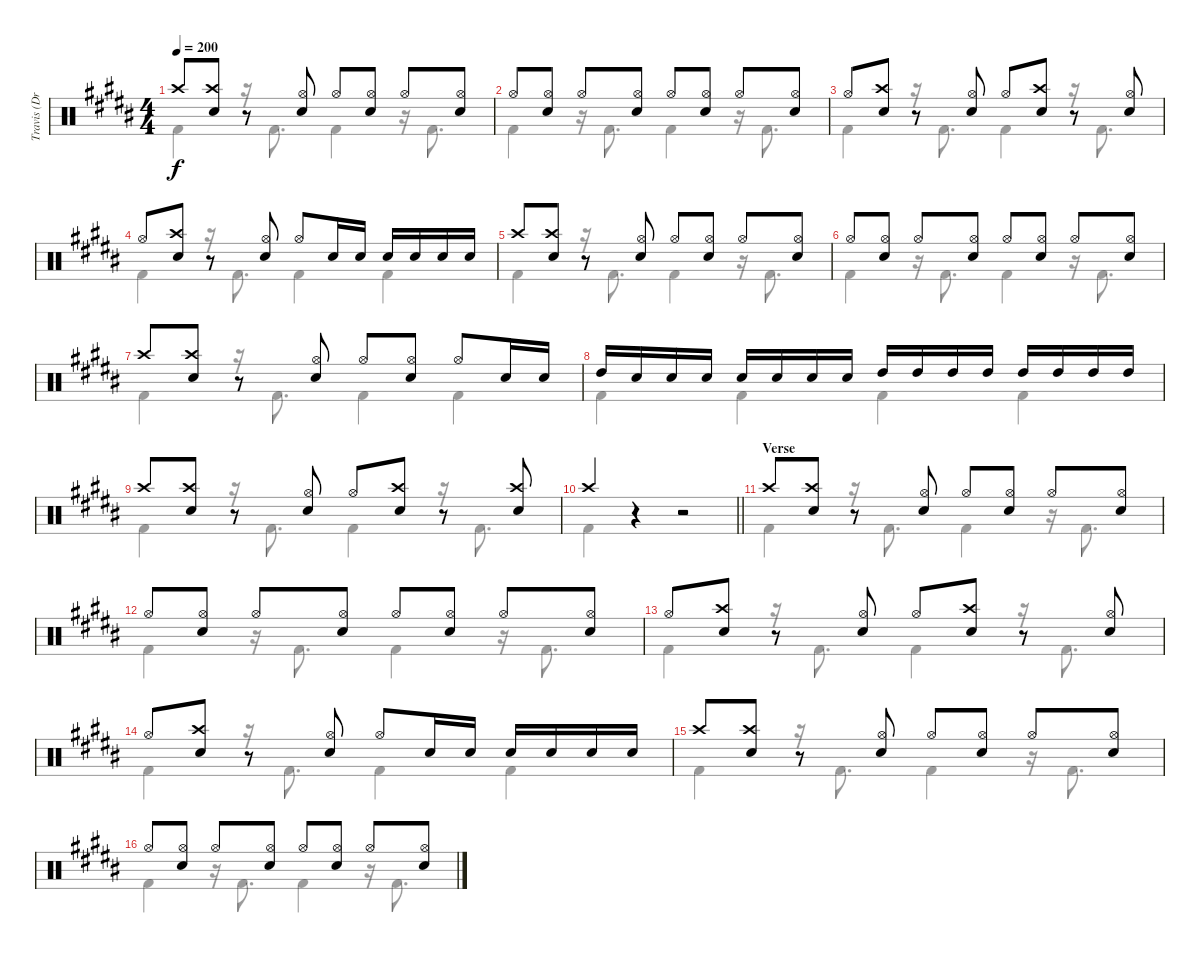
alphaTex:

\track ("Travis (Drums)" "Travis (Dr") {instrument percussion}
\staff {score}
\articulation defaults
\voice
\ts (4 4)
\tempo 200
\clef neutral
\ks b "Crash high (hit)".8{dy f}
("Crash high (hit)" "Electric Snare (hit)").8 r.8 ("Electric Snare (hit)" "Hi-Hat (open)").8 "Hi-Hat (open)".8 ("Electric Snare (hit)" "Hi-Hat (open)").8 "Hi-Hat (open)".8 ("Electric Snare (hit)" "Hi-Hat (open)").8 |
"Hi-Hat (open)".8 ("Electric Snare (hit)" "Hi-Hat (open)").8 "Hi-Hat (open)".8 ("Electric Snare (hit)" "Hi-Hat (open)").8 "Hi-Hat (open)".8 ("Electric Snare (hit)" "Hi-Hat (open)").8 "Hi-Hat (open)".8 ("Electric Snare (hit)" "Hi-Hat (open)").8 |
"Hi-Hat (open)".8 ("Crash high (hit)" "Electric Snare (hit)").8 r.8 ("Electric Snare (hit)" "Hi-Hat (open)").8 "Hi-Hat (open)".8 ("Crash high (hit)" "Electric Snare (hit)").8 r.8 ("Electric Snare (hit)" "Hi-Hat (open)").8 |
"Hi-Hat (open)".8 ("Crash high (hit)" "Electric Snare (hit)").8 r.8 ("Electric Snare (hit)" "Hi-Hat (open)").8 "Hi-Hat (open)".8 "Electric Snare (hit)".16 "Electric Snare (hit)".16 "Electric Snare (hit)".16 "Electric Snare (hit)".16 "Electric Snare (hit)".16 "Electric Snare (hit)".16 |
"Crash high (hit)".8 ("Crash high (hit)" "Electric Snare (hit)").8 r.8 ("Electric Snare (hit)" "Hi-Hat (open)").8 "Hi-Hat (open)".8 ("Electric Snare (hit)" "Hi-Hat (open)").8 "Hi-Hat (open)".8 ("Electric Snare (hit)" "Hi-Hat (open)").8 |
"Hi-Hat (open)".8 ("Electric Snare (hit)" "Hi-Hat (open)").8 "Hi-Hat (open)".8 ("Electric Snare (hit)" "Hi-Hat (open)").8 "Hi-Hat (open)".8 ("Electric Snare (hit)" "Hi-Hat (open)").8 "Hi-Hat (open)".8 ("Electric Snare (hit)" "Hi-Hat (open)").8 |
"Crash high (hit)".8 ("Crash high (hit)" "Electric Snare (hit)").8 r.8 ("Electric Snare (hit)" "Hi-Hat (open)").8 "Hi-Hat (open)".8 ("Electric Snare (hit)" "Hi-Hat (open)").8 "Hi-Hat (open)".8 "Electric Snare (hit)".16 "Electric Snare (hit)".16 |
"High Tom (hit)".16 "Electric Snare (hit)".16 "Electric Snare (hit)".16 "Electric Snare (hit)".16 "Electric Snare (hit)".16 "Electric Snare (hit)".16 "Electric Snare (hit)".16 "Electric Snare (hit)".16 "High Tom (hit)".16 "High Tom (hit)".16 "High Tom (hit)".16 "High Tom (hit)".16 "High Tom (hit)".16 "High Tom (hit)".16 "High Tom (hit)".16 "High Tom (hit)".16 |
"Crash high (hit)".8 ("Crash high (hit)" "Electric Snare (hit)").8 r.8 ("Electric Snare (hit)" "Hi-Hat (open)").8 "Hi-Hat (open)".8 ("Crash high (hit)" "Electric Snare (hit)").8 r.8 ("Crash high (hit)" "Electric Snare (hit)").8 |
\barLineRight lightlight "Crash high (hit)".4
r.4 r.2 |
\section ("" "Verse")
"Crash high (hit)".8 ("Crash high (hit)" "Electric Snare (hit)").8 r.8 ("Electric Snare (hit)" "Hi-Hat (open)").8 "Hi-Hat (open)".8 ("Electric Snare (hit)" "Hi-Hat (open)").8 "Hi-Hat (open)".8 ("Electric Snare (hit)" "Hi-Hat (open)").8 |
"Hi-Hat (open)".8 ("Electric Snare (hit)" "Hi-Hat (open)").8 "Hi-Hat (open)".8 ("Electric Snare (hit)" "Hi-Hat (open)").8 "Hi-Hat (open)".8 ("Electric Snare (hit)" "Hi-Hat (open)").8 "Hi-Hat (open)".8 ("Electric Snare (hit)" "Hi-Hat (open)").8 |
"Hi-Hat (open)".8 ("Crash high (hit)" "Electric Snare (hit)").8 r.8 ("Electric Snare (hit)" "Hi-Hat (open)").8 "Hi-Hat (open)".8 ("Crash high (hit)" "Electric Snare (hit)").8 r.8 ("Electric Snare (hit)" "Hi-Hat (open)").8 |
"Hi-Hat (open)".8 ("Crash high (hit)" "Electric Snare (hit)").8 r.8 ("Electric Snare (hit)" "Hi-Hat (open)").8 "Hi-Hat (open)".8 "Electric Snare (hit)".16 "Electric Snare (hit)".16 "Electric Snare (hit)".16 "Electric Snare (hit)".16 "Electric Snare (hit)".16 "Electric Snare (hit)".16 |
"Crash high (hit)".8 ("Crash high (hit)" "Electric Snare (hit)").8 r.8 ("Electric Snare (hit)" "Hi-Hat (open)").8 "Hi-Hat (open)".8 ("Electric Snare (hit)" "Hi-Hat (open)").8 "Hi-Hat (open)".8 ("Electric Snare (hit)" "Hi-Hat (open)").8 |
"Hi-Hat (open)".8 ("Electric Snare (hit)" "Hi-Hat (open)").8 "Hi-Hat (open)".8 ("Electric Snare (hit)" "Hi-Hat (open)").8 "Hi-Hat (open)".8 ("Electric Snare (hit)" "Hi-Hat (open)").8 "Hi-Hat (open)".8 ("Electric Snare (hit)" "Hi-Hat (open)").8
\voice
\clef neutral
\ottava regular
\simile none
\ks b "Kick (hit) 2".4{dy f}
r.16 "Kick (hit) 2".8{d} "Kick (hit) 2".4 r.16 "Kick (hit) 2".8{d} |
"Kick (hit) 2".4 r.16 "Kick (hit) 2".8{d} "Kick (hit) 2".4 r.16 "Kick (hit) 2".8{d} |
"Kick (hit) 2".4 r.16 "Kick (hit) 2".8{d} "Kick (hit) 2".4 r.16 "Kick (hit) 2".8{d} |
"Kick (hit) 2".4 r.16 "Kick (hit) 2".8{d} "Kick (hit) 2".4 "Kick (hit) 2".4 |
"Kick (hit) 2".4 r.16 "Kick (hit) 2".8{d} "Kick (hit) 2".4 r.16 "Kick (hit) 2".8{d} |
"Kick (hit) 2".4 r.16 "Kick (hit) 2".8{d} "Kick (hit) 2".4 r.16 "Kick (hit) 2".8{d} |
"Kick (hit) 2".4 r.16 "Kick (hit) 2".8{d} "Kick (hit) 2".4 "Kick (hit) 2".4 |
"Kick (hit) 2".4 "Kick (hit) 2".4 "Kick (hit) 2".4 "Kick (hit) 2".4 |
"Kick (hit) 2".4 r.16 "Kick (hit) 2".8{d} "Kick (hit) 2".4 r.16 "Kick (hit) 2".8{d} |
\barLineRight lightlight "Kick (hit) 2".4
r.4 r.2 |
"Kick (hit) 2".4 r.16 "Kick (hit) 2".8{d} "Kick (hit) 2".4 r.16 "Kick (hit) 2".8{d} |
"Kick (hit) 2".4 r.16 "Kick (hit) 2".8{d} "Kick (hit) 2".4 r.16 "Kick (hit) 2".8{d} |
"Kick (hit) 2".4 r.16 "Kick (hit) 2".8{d} "Kick (hit) 2".4 r.16 "Kick (hit) 2".8{d} |
"Kick (hit) 2".4 r.16 "Kick (hit) 2".8{d} "Kick (hit) 2".4 "Kick (hit) 2".4 |
"Kick (hit) 2".4 r.16 "Kick (hit) 2".8{d} "Kick (hit) 2".4 r.16 "Kick (hit) 2".8{d} |
"Kick (hit) 2".4 r.16 "Kick (hit) 2".8{d} "Kick (hit) 2".4 r.16 "Kick (hit) 2".8{d}
